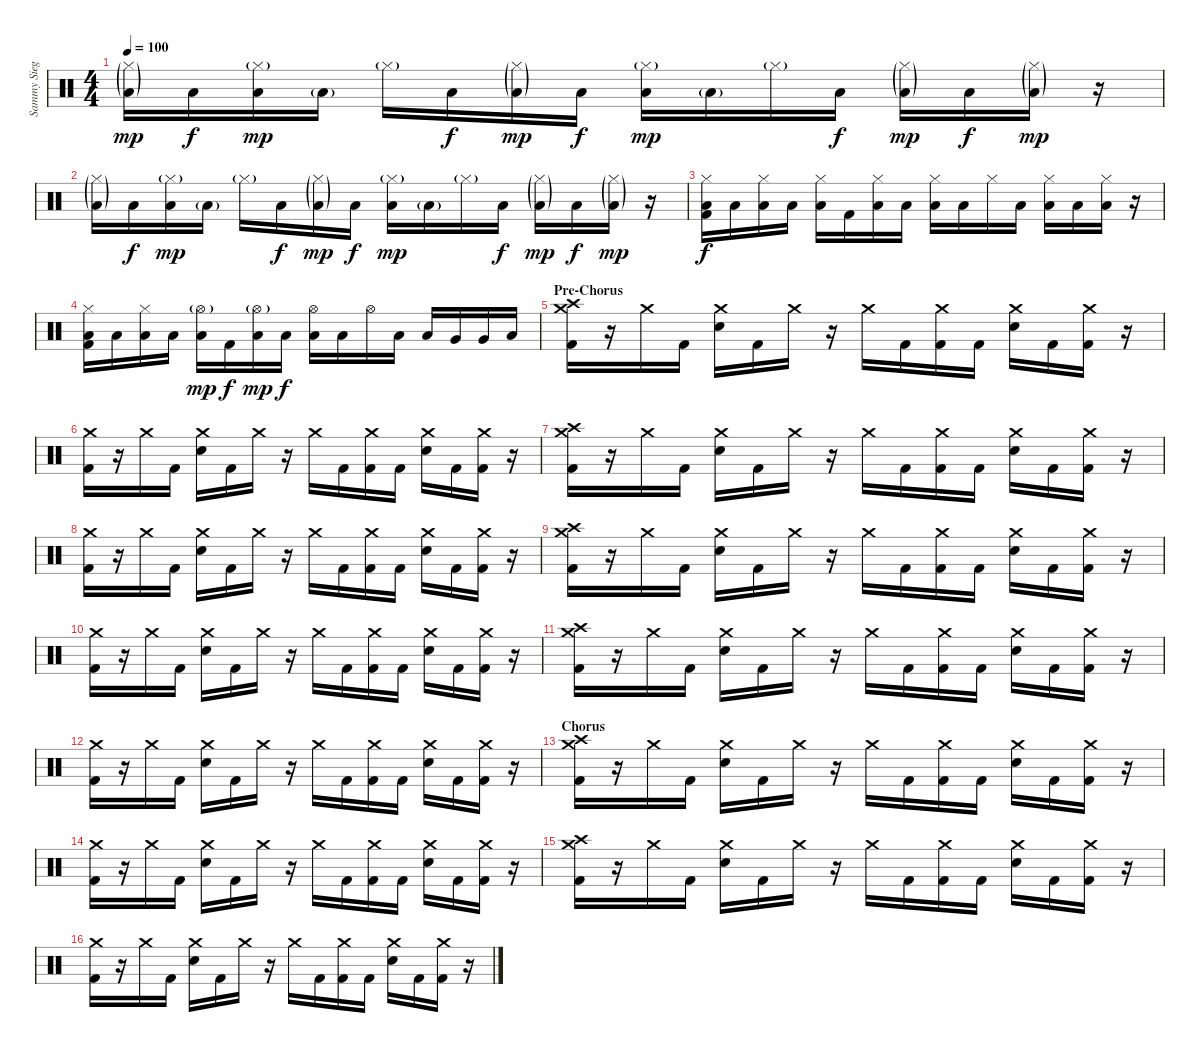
\track ("Sammy Siegler" "Sammy Sieg") {instrument percussion}
\staff {score}
\articulation defaults
\ts (4 4)
\tempo 100
\clef neutral
\ks c
("Hi-Hat (closed)"{g} "Low Tom (hit)"{g}).16{dy mp} "Low Floor Tom (hit)".16{dy f} ("Hi-Hat (closed)"{g} "Low Floor Tom (hit)").16{dy mp} "Low Tom (hit)"{g}.16 "Hi-Hat (closed)"{g}.16 "Low Floor Tom (hit)".16{dy f} ("Hi-Hat (closed)"{g} "Low Tom (hit)"{g}).16{dy mp} "Low Floor Tom (hit)".16{dy f} ("Hi-Hat (closed)"{g} "Low Floor Tom (hit)").16{dy mp} "Low Tom (hit)"{g}.16 "Hi-Hat (closed)"{g}.16 "Low Floor Tom (hit)".16{dy f} ("Hi-Hat (closed)"{g} "Low Tom (hit)"{g}).16{dy mp} "Low Floor Tom (hit)".16{dy f} ("Hi-Hat (closed)"{g} "Low Tom (hit)"{g}).16{dy mp} r.16 |
("Hi-Hat (closed)"{g} "Low Tom (hit)"{g}).16 "Low Floor Tom (hit)".16{dy f} ("Hi-Hat (closed)"{g} "Low Floor Tom (hit)").16{dy mp} "Low Tom (hit)"{g}.16 "Hi-Hat (closed)"{g}.16 "Low Floor Tom (hit)".16{dy f} ("Hi-Hat (closed)"{g} "Low Tom (hit)"{g}).16{dy mp} "Low Floor Tom (hit)".16{dy f} ("Hi-Hat (closed)"{g} "Low Floor Tom (hit)").16{dy mp} "Low Tom (hit)"{g}.16 "Hi-Hat (closed)"{g}.16 "Low Floor Tom (hit)".16{dy f} ("Hi-Hat (closed)"{g} "Low Tom (hit)"{g}).16{dy mp} "Low Floor Tom (hit)".16{dy f} ("Hi-Hat (closed)"{g} "Low Tom (hit)"{g}).16{dy mp} r.16 |
("Hi-Hat (closed)" "Low Tom (hit)" "Kick (hit) 2").16{dy f} "Low Floor Tom (hit)".16 ("Hi-Hat (closed)" "Low Floor Tom (hit)").16 "Low Tom (hit)".16 ("Hi-Hat (closed)" "Low Floor Tom (hit)").16 "Kick (hit) 2".16 ("Hi-Hat (closed)" "Low Tom (hit)").16 "Low Floor Tom (hit)".16 ("Hi-Hat (closed)" "Low Floor Tom (hit)").16 "Low Tom (hit)".16 "Hi-Hat (closed)".16 "Low Floor Tom (hit)".16 ("Hi-Hat (closed)" "Low Tom (hit)").16 "Low Floor Tom (hit)".16 ("Hi-Hat (closed)" "Low Tom (hit)").16 r.16 |
("Hi-Hat (closed)" "Low Tom (hit)" "Kick (hit) 2").16 "Low Floor Tom (hit)".16 ("Hi-Hat (closed)" "Low Floor Tom (hit)").16 "Low Tom (hit)".16 ("Hi-Hat (open)"{g} "Low Floor Tom (hit)").16{dy mp} "Kick (hit) 2".16{dy f} ("Hi-Hat (open)"{g} "Low Tom (hit)").16{dy mp} "Low Floor Tom (hit)".16{dy f} ("Hi-Hat (open)" "Low Floor Tom (hit)").16 "Low Tom (hit)".16 "Hi-Hat (open)".16 "Low Floor Tom (hit)".16 "Low Tom (hit)".16 "Very Low Tom (hit)".16 "Very Low Tom (hit)".16 "Low Tom (hit)".16 |
\section ("" "Pre-Chorus")
("Crash medium (hit)" "Crash high (hit)" "Kick (hit) 2").16 r.16 "Crash medium (hit)".16 "Kick (hit) 2".16 ("Crash medium (hit)" "Electric Snare (hit)").16 "Kick (hit) 2".16 "Crash medium (hit)".16 r.16 "Crash medium (hit)".16 "Kick (hit) 2".16 ("Crash medium (hit)" "Kick (hit) 2").16 "Kick (hit) 2".16 ("Crash medium (hit)" "Electric Snare (hit)").16 "Kick (hit) 2".16 ("Crash medium (hit)" "Kick (hit) 2").16 r.16 |
("Crash medium (hit)" "Kick (hit) 2").16 r.16 "Crash medium (hit)".16 "Kick (hit) 2".16 ("Crash medium (hit)" "Electric Snare (hit)").16 "Kick (hit) 2".16 "Crash medium (hit)".16 r.16 "Crash medium (hit)".16 "Kick (hit) 2".16 ("Crash medium (hit)" "Kick (hit) 2").16 "Kick (hit) 2".16 ("Crash medium (hit)" "Electric Snare (hit)").16 "Kick (hit) 2".16 ("Crash medium (hit)" "Kick (hit) 2").16 r.16 |
("Crash medium (hit)" "Crash high (hit)" "Kick (hit) 2").16 r.16 "Crash medium (hit)".16 "Kick (hit) 2".16 ("Crash medium (hit)" "Electric Snare (hit)").16 "Kick (hit) 2".16 "Crash medium (hit)".16 r.16 "Crash medium (hit)".16 "Kick (hit) 2".16 ("Crash medium (hit)" "Kick (hit) 2").16 "Kick (hit) 2".16 ("Crash medium (hit)" "Electric Snare (hit)").16 "Kick (hit) 2".16 ("Crash medium (hit)" "Kick (hit) 2").16 r.16 |
("Crash medium (hit)" "Kick (hit) 2").16 r.16 "Crash medium (hit)".16 "Kick (hit) 2".16 ("Crash medium (hit)" "Electric Snare (hit)").16 "Kick (hit) 2".16 "Crash medium (hit)".16 r.16 "Crash medium (hit)".16 "Kick (hit) 2".16 ("Crash medium (hit)" "Kick (hit) 2").16 "Kick (hit) 2".16 ("Crash medium (hit)" "Electric Snare (hit)").16 "Kick (hit) 2".16 ("Crash medium (hit)" "Kick (hit) 2").16 r.16 |
("Crash medium (hit)" "Crash high (hit)" "Kick (hit) 2").16 r.16 "Crash medium (hit)".16 "Kick (hit) 2".16 ("Crash medium (hit)" "Electric Snare (hit)").16 "Kick (hit) 2".16 "Crash medium (hit)".16 r.16 "Crash medium (hit)".16 "Kick (hit) 2".16 ("Crash medium (hit)" "Kick (hit) 2").16 "Kick (hit) 2".16 ("Crash medium (hit)" "Electric Snare (hit)").16 "Kick (hit) 2".16 ("Crash medium (hit)" "Kick (hit) 2").16 r.16 |
("Crash medium (hit)" "Kick (hit) 2").16 r.16 "Crash medium (hit)".16 "Kick (hit) 2".16 ("Crash medium (hit)" "Electric Snare (hit)").16 "Kick (hit) 2".16 "Crash medium (hit)".16 r.16 "Crash medium (hit)".16 "Kick (hit) 2".16 ("Crash medium (hit)" "Kick (hit) 2").16 "Kick (hit) 2".16 ("Crash medium (hit)" "Electric Snare (hit)").16 "Kick (hit) 2".16 ("Crash medium (hit)" "Kick (hit) 2").16 r.16 |
("Crash medium (hit)" "Crash high (hit)" "Kick (hit) 2").16 r.16 "Crash medium (hit)".16 "Kick (hit) 2".16 ("Crash medium (hit)" "Electric Snare (hit)").16 "Kick (hit) 2".16 "Crash medium (hit)".16 r.16 "Crash medium (hit)".16 "Kick (hit) 2".16 ("Crash medium (hit)" "Kick (hit) 2").16 "Kick (hit) 2".16 ("Crash medium (hit)" "Electric Snare (hit)").16 "Kick (hit) 2".16 ("Crash medium (hit)" "Kick (hit) 2").16 r.16 |
("Crash medium (hit)" "Kick (hit) 2").16 r.16 "Crash medium (hit)".16 "Kick (hit) 2".16 ("Crash medium (hit)" "Electric Snare (hit)").16 "Kick (hit) 2".16 "Crash medium (hit)".16 r.16 "Crash medium (hit)".16 "Kick (hit) 2".16 ("Crash medium (hit)" "Kick (hit) 2").16 "Kick (hit) 2".16 ("Crash medium (hit)" "Electric Snare (hit)").16 "Kick (hit) 2".16 ("Crash medium (hit)" "Kick (hit) 2").16 r.16 |
\section ("" "Chorus")
("Crash medium (hit)" "Crash high (hit)" "Kick (hit) 2").16 r.16 "Crash medium (hit)".16 "Kick (hit) 2".16 ("Crash medium (hit)" "Electric Snare (hit)").16 "Kick (hit) 2".16 "Crash medium (hit)".16 r.16 "Crash medium (hit)".16 "Kick (hit) 2".16 ("Crash medium (hit)" "Kick (hit) 2").16 "Kick (hit) 2".16 ("Crash medium (hit)" "Electric Snare (hit)").16 "Kick (hit) 2".16 ("Crash medium (hit)" "Kick (hit) 2").16 r.16 |
("Crash medium (hit)" "Kick (hit) 2").16 r.16 "Crash medium (hit)".16 "Kick (hit) 2".16 ("Crash medium (hit)" "Electric Snare (hit)").16 "Kick (hit) 2".16 "Crash medium (hit)".16 r.16 "Crash medium (hit)".16 "Kick (hit) 2".16 ("Crash medium (hit)" "Kick (hit) 2").16 "Kick (hit) 2".16 ("Crash medium (hit)" "Electric Snare (hit)").16 "Kick (hit) 2".16 ("Crash medium (hit)" "Kick (hit) 2").16 r.16 |
("Crash medium (hit)" "Crash high (hit)" "Kick (hit) 2").16 r.16 "Crash medium (hit)".16 "Kick (hit) 2".16 ("Crash medium (hit)" "Electric Snare (hit)").16 "Kick (hit) 2".16 "Crash medium (hit)".16 r.16 "Crash medium (hit)".16 "Kick (hit) 2".16 ("Crash medium (hit)" "Kick (hit) 2").16 "Kick (hit) 2".16 ("Crash medium (hit)" "Electric Snare (hit)").16 "Kick (hit) 2".16 ("Crash medium (hit)" "Kick (hit) 2").16 r.16 |
("Crash medium (hit)" "Kick (hit) 2").16 r.16 "Crash medium (hit)".16 "Kick (hit) 2".16 ("Crash medium (hit)" "Electric Snare (hit)").16 "Kick (hit) 2".16 "Crash medium (hit)".16 r.16 "Crash medium (hit)".16 "Kick (hit) 2".16 ("Crash medium (hit)" "Kick (hit) 2").16 "Kick (hit) 2".16 ("Crash medium (hit)" "Electric Snare (hit)").16 "Kick (hit) 2".16 ("Crash medium (hit)" "Kick (hit) 2").16 r.16
